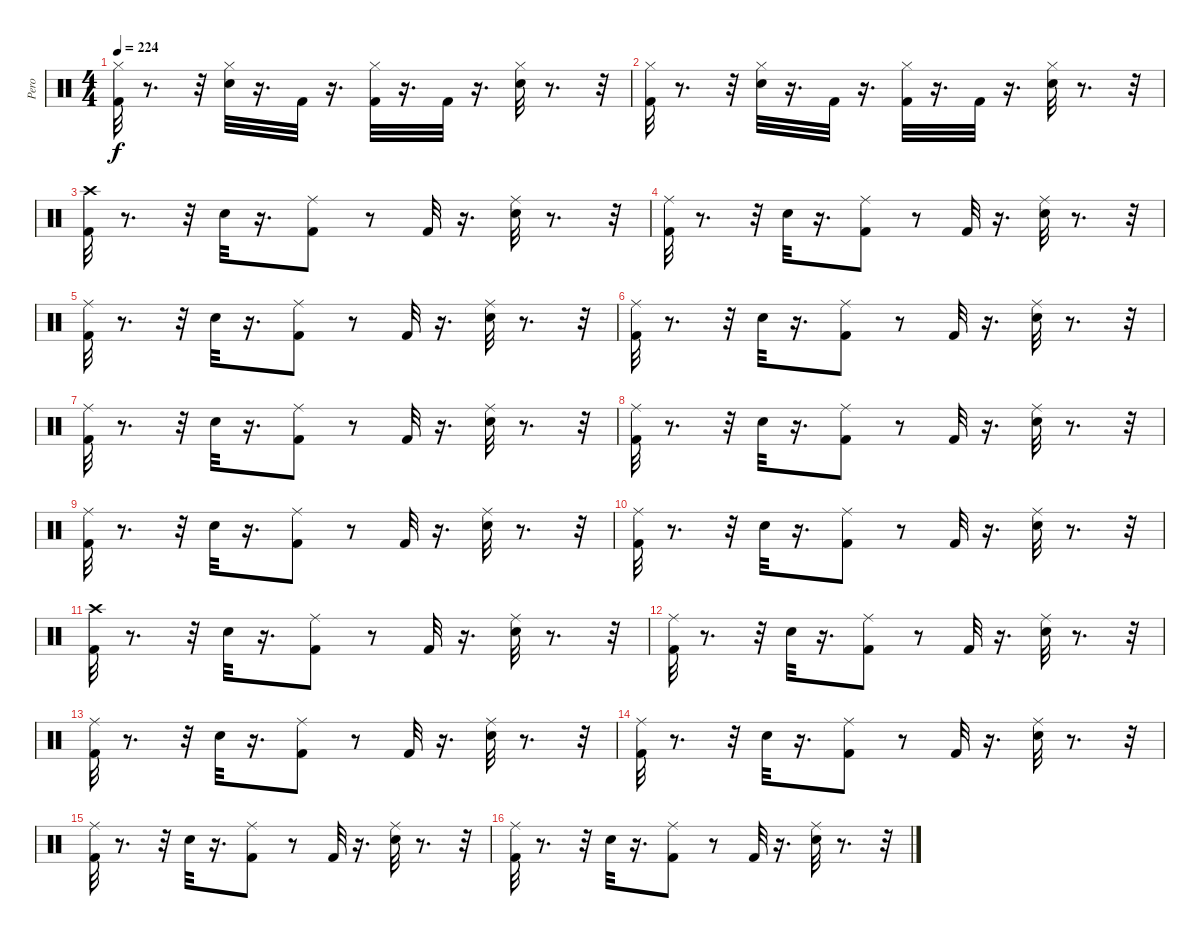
\track ("Pero" "Pero") {instrument percussion}
\staff {score}
\articulation defaults
\ts (4 4)
\tempo 224
\clef neutral
\ks c
("Kick (hit) 2" "Hi-Hat (closed)").32{dy f} r.8{d} r.32 ("Hi-Hat (closed)" "Snare (hit) 2").32 r.16{d} "Kick (hit) 2".32 r.16{d} ("Hi-Hat (closed)" "Kick (hit) 2").32 r.16{d} "Kick (hit) 2".32 r.16{d} ("Hi-Hat (closed)" "Snare (hit) 2").32 r.8{d} r.32 |
("Kick (hit) 2" "Hi-Hat (closed)").32 r.8{d} r.32 ("Hi-Hat (closed)" "Snare (hit) 2").32 r.16{d} "Kick (hit) 2".32 r.16{d} ("Hi-Hat (closed)" "Kick (hit) 2").32 r.16{d} "Kick (hit) 2".32 r.16{d} ("Hi-Hat (closed)" "Snare (hit) 2").32 r.8{d} r.32 |
("Crash high (hit)" "Kick (hit) 2").32 r.8{d} r.32 "Snare (hit) 2".32 r.16{d} ("Ride (middle)" "Kick (hit) 2").8 r.8 "Kick (hit) 2".32 r.16{d} ("Snare (hit) 2" "Ride (middle)").32 r.8{d} r.32 |
("Ride (middle)" "Kick (hit) 2").32 r.8{d} r.32 "Snare (hit) 2".32 r.16{d} ("Ride (middle)" "Kick (hit) 2").8 r.8 "Kick (hit) 2".32 r.16{d} ("Snare (hit) 2" "Ride (middle)").32 r.8{d} r.32 |
("Ride (middle)" "Kick (hit) 2").32 r.8{d} r.32 "Snare (hit) 2".32 r.16{d} ("Ride (middle)" "Kick (hit) 2").8 r.8 "Kick (hit) 2".32 r.16{d} ("Snare (hit) 2" "Ride (middle)").32 r.8{d} r.32 |
("Ride (middle)" "Kick (hit) 2").32 r.8{d} r.32 "Snare (hit) 2".32 r.16{d} ("Ride (middle)" "Kick (hit) 2").8 r.8 "Kick (hit) 2".32 r.16{d} ("Snare (hit) 2" "Ride (middle)").32 r.8{d} r.32 |
("Ride (middle)" "Kick (hit) 2").32 r.8{d} r.32 "Snare (hit) 2".32 r.16{d} ("Ride (middle)" "Kick (hit) 2").8 r.8 "Kick (hit) 2".32 r.16{d} ("Snare (hit) 2" "Ride (middle)").32 r.8{d} r.32 |
("Ride (middle)" "Kick (hit) 2").32 r.8{d} r.32 "Snare (hit) 2".32 r.16{d} ("Ride (middle)" "Kick (hit) 2").8 r.8 "Kick (hit) 2".32 r.16{d} ("Snare (hit) 2" "Ride (middle)").32 r.8{d} r.32 |
("Ride (middle)" "Kick (hit) 2").32 r.8{d} r.32 "Snare (hit) 2".32 r.16{d} ("Ride (middle)" "Kick (hit) 2").8 r.8 "Kick (hit) 2".32 r.16{d} ("Snare (hit) 2" "Ride (middle)").32 r.8{d} r.32 |
("Ride (middle)" "Kick (hit) 2").32 r.8{d} r.32 "Snare (hit) 2".32 r.16{d} ("Ride (middle)" "Kick (hit) 2").8 r.8 "Kick (hit) 2".32 r.16{d} ("Snare (hit) 2" "Ride (middle)").32 r.8{d} r.32 |
("Crash high (hit)" "Kick (hit) 2").32 r.8{d} r.32 "Snare (hit) 2".32 r.16{d} ("Ride (middle)" "Kick (hit) 2").8 r.8 "Kick (hit) 2".32 r.16{d} ("Snare (hit) 2" "Ride (middle)").32 r.8{d} r.32 |
("Ride (middle)" "Kick (hit) 2").32 r.8{d} r.32 "Snare (hit) 2".32 r.16{d} ("Ride (middle)" "Kick (hit) 2").8 r.8 "Kick (hit) 2".32 r.16{d} ("Snare (hit) 2" "Ride (middle)").32 r.8{d} r.32 |
("Ride (middle)" "Kick (hit) 2").32 r.8{d} r.32 "Snare (hit) 2".32 r.16{d} ("Ride (middle)" "Kick (hit) 2").8 r.8 "Kick (hit) 2".32 r.16{d} ("Snare (hit) 2" "Ride (middle)").32 r.8{d} r.32 |
("Ride (middle)" "Kick (hit) 2").32 r.8{d} r.32 "Snare (hit) 2".32 r.16{d} ("Ride (middle)" "Kick (hit) 2").8 r.8 "Kick (hit) 2".32 r.16{d} ("Snare (hit) 2" "Ride (middle)").32 r.8{d} r.32 |
("Ride (middle)" "Kick (hit) 2").32 r.8{d} r.32 "Snare (hit) 2".32 r.16{d} ("Ride (middle)" "Kick (hit) 2").8 r.8 "Kick (hit) 2".32 r.16{d} ("Snare (hit) 2" "Ride (middle)").32 r.8{d} r.32 |
("Ride (middle)" "Kick (hit) 2").32 r.8{d} r.32 "Snare (hit) 2".32 r.16{d} ("Ride (middle)" "Kick (hit) 2").8 r.8 "Kick (hit) 2".32 r.16{d} ("Snare (hit) 2" "Ride (middle)").32 r.8{d} r.32
